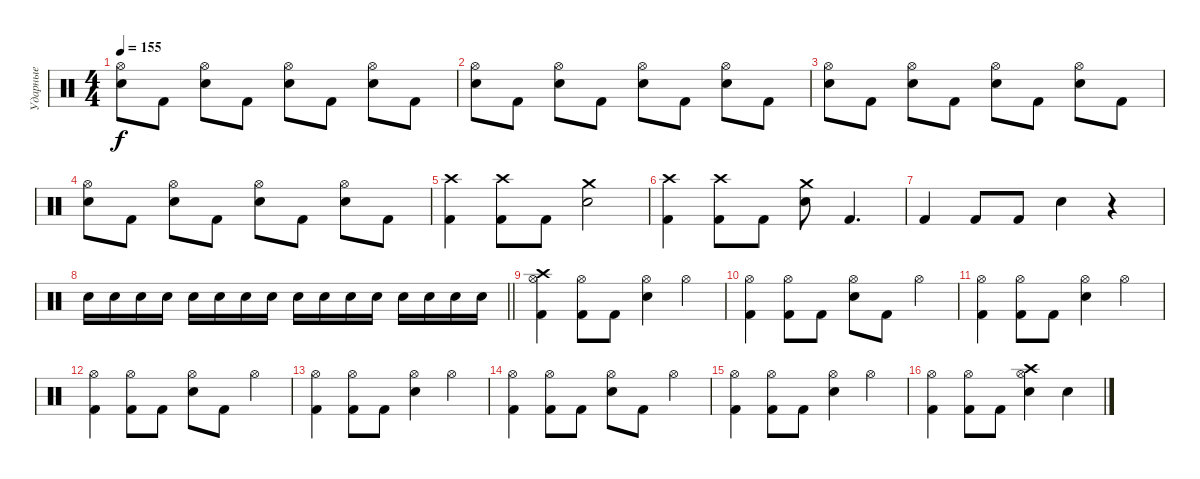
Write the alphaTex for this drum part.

\track ("Ударные" "Ударные") {instrument percussion}
\staff {score}
\articulation defaults
\ts (4 4)
\tempo 155
\clef neutral
\ks c
("Electric Snare (hit)" "Hi-Hat (open)").8{dy f} "Kick (hit) 2".8 ("Electric Snare (hit)" "Hi-Hat (open)").8 "Kick (hit) 2".8 ("Electric Snare (hit)" "Hi-Hat (open)").8 "Kick (hit) 2".8 ("Electric Snare (hit)" "Hi-Hat (open)").8 "Kick (hit) 2".8 |
("Electric Snare (hit)" "Hi-Hat (open)").8 "Kick (hit) 2".8 ("Electric Snare (hit)" "Hi-Hat (open)").8 "Kick (hit) 2".8 ("Electric Snare (hit)" "Hi-Hat (open)").8 "Kick (hit) 2".8 ("Electric Snare (hit)" "Hi-Hat (open)").8 "Kick (hit) 2".8 |
("Electric Snare (hit)" "Hi-Hat (open)").8 "Kick (hit) 2".8 ("Electric Snare (hit)" "Hi-Hat (open)").8 "Kick (hit) 2".8 ("Electric Snare (hit)" "Hi-Hat (open)").8 "Kick (hit) 2".8 ("Electric Snare (hit)" "Hi-Hat (open)").8 "Kick (hit) 2".8 |
("Electric Snare (hit)" "Hi-Hat (open)").8 "Kick (hit) 2".8 ("Electric Snare (hit)" "Hi-Hat (open)").8 "Kick (hit) 2".8 ("Electric Snare (hit)" "Hi-Hat (open)").8 "Kick (hit) 2".8 ("Electric Snare (hit)" "Hi-Hat (open)").8 "Kick (hit) 2".8 |
("Kick (hit) 2" "Crash high (hit)").4 ("Kick (hit) 2" "Crash high (hit)").8 "Kick (hit) 2".8 ("Electric Snare (hit)" "Crash medium (hit)").2 |
("Kick (hit) 2" "Crash high (hit)").4 ("Kick (hit) 2" "Crash high (hit)").8 "Kick (hit) 2".8 ("Electric Snare (hit)" "Crash medium (hit)").8 "Kick (hit) 2".4{d} |
"Kick (hit) 2".4 "Kick (hit) 2".8 "Kick (hit) 2".8 "Electric Snare (hit)".4 r.4{volume 4} |
\barLineRight lightlight "Electric Snare (hit)".16{volume 12} "Electric Snare (hit)".16 "Electric Snare (hit)".16 "Electric Snare (hit)".16 "Electric Snare (hit)".16 "Electric Snare (hit)".16 "Electric Snare (hit)".16 "Electric Snare (hit)".16 "Electric Snare (hit)".16 "Electric Snare (hit)".16 "Electric Snare (hit)".16 "Electric Snare (hit)".16 "Electric Snare (hit)".16 "Electric Snare (hit)".16 "Electric Snare (hit)".16 "Electric Snare (hit)".16
|
("Kick (hit) 2" "Crash high (hit)" "Hi-Hat (open)").4 ("Kick (hit) 2" "Hi-Hat (open)").8 "Kick (hit) 2".8 ("Electric Snare (hit)" "Hi-Hat (open)").4 "Hi-Hat (open)".4 |
("Kick (hit) 2" "Hi-Hat (open)").4 ("Kick (hit) 2" "Hi-Hat (open)").8 "Kick (hit) 2".8 ("Electric Snare (hit)" "Hi-Hat (open)").8 "Kick (hit) 2".8 "Hi-Hat (open)".4 |
("Kick (hit) 2" "Hi-Hat (open)").4 ("Kick (hit) 2" "Hi-Hat (open)").8 "Kick (hit) 2".8 ("Electric Snare (hit)" "Hi-Hat (open)").4 "Hi-Hat (open)".4 |
("Kick (hit) 2" "Hi-Hat (open)").4 ("Kick (hit) 2" "Hi-Hat (open)").8 "Kick (hit) 2".8 ("Electric Snare (hit)" "Hi-Hat (open)").8 "Kick (hit) 2".8 "Hi-Hat (open)".4 |
("Kick (hit) 2" "Hi-Hat (open)").4 ("Kick (hit) 2" "Hi-Hat (open)").8 "Kick (hit) 2".8 ("Electric Snare (hit)" "Hi-Hat (open)").4 "Hi-Hat (open)".4 |
("Kick (hit) 2" "Hi-Hat (open)").4 ("Kick (hit) 2" "Hi-Hat (open)").8 "Kick (hit) 2".8 ("Electric Snare (hit)" "Hi-Hat (open)").8 "Kick (hit) 2".8 "Hi-Hat (open)".4 |
("Kick (hit) 2" "Hi-Hat (open)").4 ("Kick (hit) 2" "Hi-Hat (open)").8 "Kick (hit) 2".8 ("Electric Snare (hit)" "Hi-Hat (open)").4 "Hi-Hat (open)".4 |
("Kick (hit) 2" "Hi-Hat (open)").4 ("Kick (hit) 2" "Hi-Hat (open)").8 "Kick (hit) 2".8 ("Electric Snare (hit)" "Crash high (hit)" "Hi-Hat (open)").4 "Electric Snare (hit)".4
